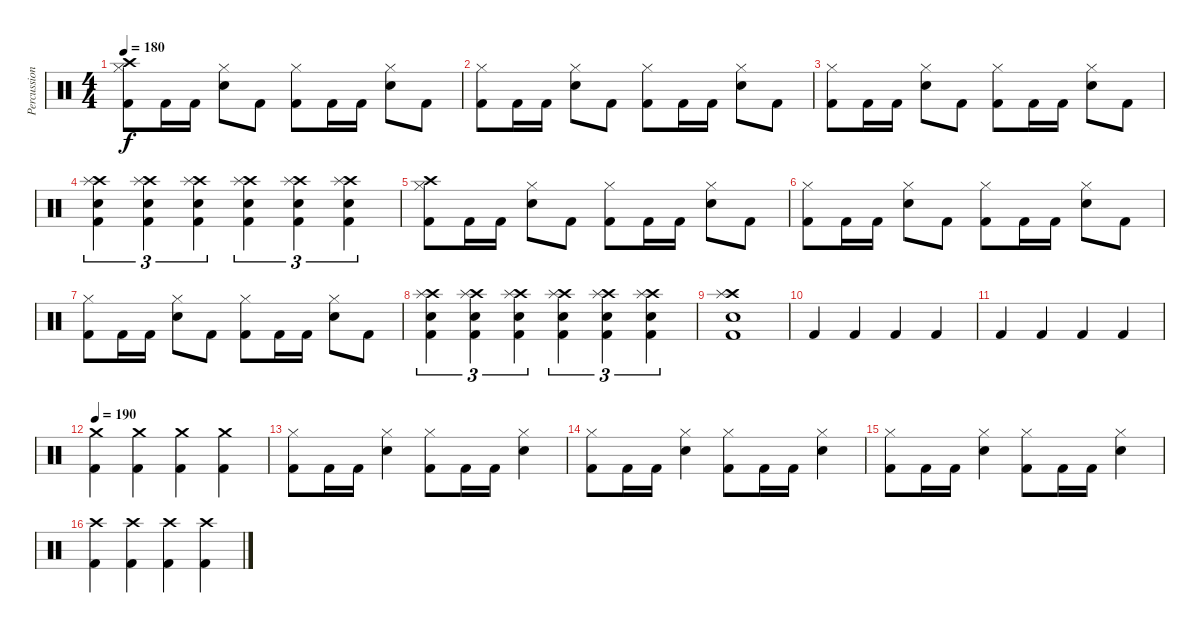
\track ("Percussion" "Percussion") {instrument percussion}
\staff {score}
\articulation defaults
\ts (4 4)
\tempo 180
\clef neutral
\ks c
("Crash high (hit)" "Hi-Hat (closed)" "Kick (hit) 2").8{dy f} "Kick (hit) 2".16 "Kick (hit) 2".16 ("Hi-Hat (closed)" "Electric Snare (hit)").8 "Kick (hit) 2".8 ("Hi-Hat (closed)" "Kick (hit) 2").8 "Kick (hit) 2".16 "Kick (hit) 2".16 ("Hi-Hat (closed)" "Electric Snare (hit)").8 "Kick (hit) 2".8 |
("Hi-Hat (closed)" "Kick (hit) 2").8 "Kick (hit) 2".16 "Kick (hit) 2".16 ("Hi-Hat (closed)" "Electric Snare (hit)").8 "Kick (hit) 2".8 ("Hi-Hat (closed)" "Kick (hit) 2").8 "Kick (hit) 2".16 "Kick (hit) 2".16 ("Hi-Hat (closed)" "Electric Snare (hit)").8 "Kick (hit) 2".8 |
("Hi-Hat (closed)" "Kick (hit) 2").8 "Kick (hit) 2".16 "Kick (hit) 2".16 ("Hi-Hat (closed)" "Electric Snare (hit)").8 "Kick (hit) 2".8 ("Hi-Hat (closed)" "Kick (hit) 2").8 "Kick (hit) 2".16 "Kick (hit) 2".16 ("Hi-Hat (closed)" "Electric Snare (hit)").8 "Kick (hit) 2".8 |
("Crash high (hit)" "Splash (hit)" "Kick (hit) 2" "Electric Snare (hit)").4{tu (3 2)} ("Crash high (hit)" "Splash (hit)" "Kick (hit) 2" "Electric Snare (hit)").4{tu (3 2)} ("Crash high (hit)" "Splash (hit)" "Kick (hit) 2" "Electric Snare (hit)").4{tu (3 2)} ("Crash high (hit)" "Splash (hit)" "Kick (hit) 2" "Electric Snare (hit)").4{tu (3 2)} ("Crash high (hit)" "Splash (hit)" "Kick (hit) 2" "Electric Snare (hit)").4{tu (3 2)} ("Crash high (hit)" "Splash (hit)" "Kick (hit) 2" "Electric Snare (hit)").4{tu (3 2)} |
("Crash high (hit)" "Hi-Hat (closed)" "Kick (hit) 2").8 "Kick (hit) 2".16 "Kick (hit) 2".16 ("Hi-Hat (closed)" "Electric Snare (hit)").8 "Kick (hit) 2".8 ("Hi-Hat (closed)" "Kick (hit) 2").8 "Kick (hit) 2".16 "Kick (hit) 2".16 ("Hi-Hat (closed)" "Electric Snare (hit)").8 "Kick (hit) 2".8 |
("Hi-Hat (closed)" "Kick (hit) 2").8 "Kick (hit) 2".16 "Kick (hit) 2".16 ("Hi-Hat (closed)" "Electric Snare (hit)").8 "Kick (hit) 2".8 ("Hi-Hat (closed)" "Kick (hit) 2").8 "Kick (hit) 2".16 "Kick (hit) 2".16 ("Hi-Hat (closed)" "Electric Snare (hit)").8 "Kick (hit) 2".8 |
("Hi-Hat (closed)" "Kick (hit) 2").8 "Kick (hit) 2".16 "Kick (hit) 2".16 ("Hi-Hat (closed)" "Electric Snare (hit)").8 "Kick (hit) 2".8 ("Hi-Hat (closed)" "Kick (hit) 2").8 "Kick (hit) 2".16 "Kick (hit) 2".16 ("Hi-Hat (closed)" "Electric Snare (hit)").8 "Kick (hit) 2".8 |
("Crash high (hit)" "Splash (hit)" "Kick (hit) 2" "Electric Snare (hit)").4{tu (3 2)} ("Crash high (hit)" "Splash (hit)" "Kick (hit) 2" "Electric Snare (hit)").4{tu (3 2)} ("Crash high (hit)" "Splash (hit)" "Kick (hit) 2" "Electric Snare (hit)").4{tu (3 2)} ("Crash high (hit)" "Splash (hit)" "Kick (hit) 2" "Electric Snare (hit)").4{tu (3 2)} ("Crash high (hit)" "Splash (hit)" "Kick (hit) 2" "Electric Snare (hit)").4{tu (3 2)} ("Crash high (hit)" "Splash (hit)" "Kick (hit) 2" "Electric Snare (hit)").4{tu (3 2)} |
("Crash high (hit)" "Splash (hit)" "Kick (hit) 2" "Electric Snare (hit)").1{volume 16} |
"Kick (hit) 2".4 "Kick (hit) 2".4 "Kick (hit) 2".4 "Kick (hit) 2".4 |
"Kick (hit) 2".4 "Kick (hit) 2".4 "Kick (hit) 2".4 "Kick (hit) 2".4 |
\tempo 190
("Crash medium (hit)" "Kick (hit) 2").4 ("Crash medium (hit)" "Kick (hit) 2").4 ("Crash medium (hit)" "Kick (hit) 2").4 ("Crash medium (hit)" "Kick (hit) 2").4 |
("Hi-Hat (closed)" "Kick (hit) 2").8 "Kick (hit) 2".16 "Kick (hit) 2".16 ("Hi-Hat (closed)" "Electric Snare (hit)").4 ("Hi-Hat (closed)" "Kick (hit) 2").8 "Kick (hit) 2".16 "Kick (hit) 2".16 ("Hi-Hat (closed)" "Electric Snare (hit)").4 |
("Hi-Hat (closed)" "Kick (hit) 2").8 "Kick (hit) 2".16 "Kick (hit) 2".16 ("Hi-Hat (closed)" "Electric Snare (hit)").4 ("Hi-Hat (closed)" "Kick (hit) 2").8 "Kick (hit) 2".16 "Kick (hit) 2".16 ("Hi-Hat (closed)" "Electric Snare (hit)").4 |
("Hi-Hat (closed)" "Kick (hit) 2").8 "Kick (hit) 2".16 "Kick (hit) 2".16 ("Hi-Hat (closed)" "Electric Snare (hit)").4 ("Hi-Hat (closed)" "Kick (hit) 2").8 "Kick (hit) 2".16 "Kick (hit) 2".16 ("Hi-Hat (closed)" "Electric Snare (hit)").4 |
("Crash high (hit)" "Kick (hit) 2").4 ("Crash high (hit)" "Kick (hit) 2").4 ("Crash high (hit)" "Kick (hit) 2").4 ("Crash high (hit)" "Kick (hit) 2").4
